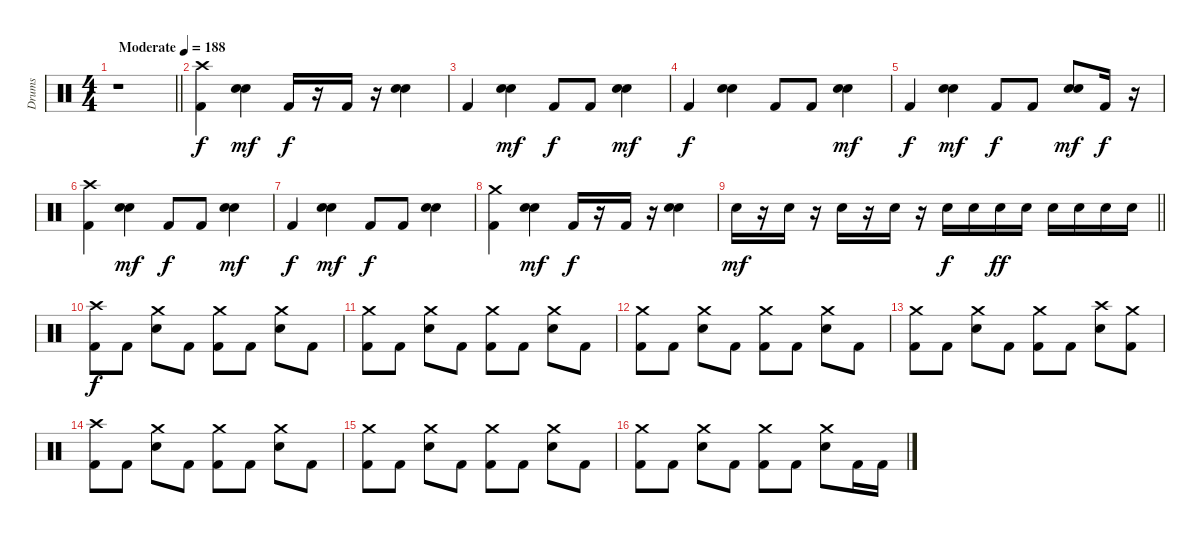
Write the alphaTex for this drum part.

\track ("Drums" "Drums") {instrument percussion}
\staff {score}
\articulation defaults
\ts (4 4)
\tempo (188 "Moderate")
\clef neutral
\barLineRight lightlight
\ks c
r.1{dy f} |
\section ("" " ")
("Kick (hit) 2" "Crash high (hit)").4 ("Snare (hit) 2" "Snare (hit) 2").4{dy mf} "Kick (hit) 2".16{dy f} r.16 "Kick (hit) 2".16 r.16 ("Snare (hit) 2" "Snare (hit) 2").4 |
"Kick (hit) 2".4 ("Snare (hit) 2" "Snare (hit) 2").4{dy mf} "Kick (hit) 2".8{dy f} "Kick (hit) 2".8 ("Snare (hit) 2" "Snare (hit) 2").4{dy mf} |
"Kick (hit) 2".4{dy f} ("Snare (hit) 2" "Snare (hit) 2").4 "Kick (hit) 2".8 "Kick (hit) 2".8 ("Snare (hit) 2" "Snare (hit) 2").4{dy mf} |
"Kick (hit) 2".4{dy f} ("Snare (hit) 2" "Snare (hit) 2").4{dy mf} "Kick (hit) 2".8{dy f} "Kick (hit) 2".8 ("Snare (hit) 2" "Snare (hit) 2").8{dy mf} "Kick (hit) 2".16{dy f} r.16 |
("Kick (hit) 2" "Crash high (hit)").4 ("Snare (hit) 2" "Snare (hit) 2").4{dy mf} "Kick (hit) 2".8{dy f} "Kick (hit) 2".8 ("Snare (hit) 2" "Snare (hit) 2").4{dy mf} |
"Kick (hit) 2".4{dy f} ("Snare (hit) 2" "Snare (hit) 2").4{dy mf} "Kick (hit) 2".8{dy f} "Kick (hit) 2".8 ("Snare (hit) 2" "Snare (hit) 2").4 |
("Kick (hit) 2" "Crash medium (hit)").4 ("Snare (hit) 2" "Snare (hit) 2").4{dy mf} "Kick (hit) 2".16{dy f} r.16 "Kick (hit) 2".16 r.16 ("Snare (hit) 2" "Snare (hit) 2").4 |
\barLineRight lightlight "Snare (hit) 2".16{dy mf}
r.16 "Snare (hit) 2".16 r.16 "Snare (hit) 2".16 r.16 "Snare (hit) 2".16 r.16 "Snare (hit) 2".16{dy f} "Snare (hit) 2".16 "Snare (hit) 2".16{dy ff} "Snare (hit) 2".16 "Snare (hit) 2".16 "Snare (hit) 2".16 "Snare (hit) 2".16 "Snare (hit) 2".16 |
\section ("" " ")
("Kick (hit) 2" "Crash high (hit)").8{dy f} "Kick (hit) 2".8 ("Snare (hit) 2" "Crash medium (hit)").8 "Kick (hit) 2".8 ("Kick (hit) 2" "Crash medium (hit)").8 "Kick (hit) 2".8 ("Snare (hit) 2" "Crash medium (hit)").8 "Kick (hit) 2".8 |
("Kick (hit) 2" "Crash medium (hit)").8 "Kick (hit) 2".8 ("Snare (hit) 2" "Crash medium (hit)").8 "Kick (hit) 2".8 ("Kick (hit) 2" "Crash medium (hit)").8 "Kick (hit) 2".8 ("Snare (hit) 2" "Crash medium (hit)").8 "Kick (hit) 2".8 |
("Kick (hit) 2" "Crash medium (hit)").8 "Kick (hit) 2".8 ("Snare (hit) 2" "Crash medium (hit)").8 "Kick (hit) 2".8 ("Kick (hit) 2" "Crash medium (hit)").8 "Kick (hit) 2".8 ("Snare (hit) 2" "Crash medium (hit)").8 "Kick (hit) 2".8 |
("Kick (hit) 2" "Crash medium (hit)").8 "Kick (hit) 2".8 ("Snare (hit) 2" "Crash medium (hit)").8 "Kick (hit) 2".8 ("Kick (hit) 2" "Crash medium (hit)").8 "Kick (hit) 2".8 ("Snare (hit) 2" "Crash high (hit)").8 ("Kick (hit) 2" "Crash medium (hit)").8 |
("Kick (hit) 2" "Crash high (hit)").8 "Kick (hit) 2".8 ("Snare (hit) 2" "Crash medium (hit)").8 "Kick (hit) 2".8 ("Kick (hit) 2" "Crash medium (hit)").8 "Kick (hit) 2".8 ("Snare (hit) 2" "Crash medium (hit)").8 "Kick (hit) 2".8 |
("Kick (hit) 2" "Crash medium (hit)").8 "Kick (hit) 2".8 ("Snare (hit) 2" "Crash medium (hit)").8 "Kick (hit) 2".8 ("Kick (hit) 2" "Crash medium (hit)").8 "Kick (hit) 2".8 ("Snare (hit) 2" "Crash medium (hit)").8 "Kick (hit) 2".8 |
("Kick (hit) 2" "Crash medium (hit)").8 "Kick (hit) 2".8 ("Snare (hit) 2" "Crash medium (hit)").8 "Kick (hit) 2".8 ("Kick (hit) 2" "Crash medium (hit)").8 "Kick (hit) 2".8 ("Snare (hit) 2" "Crash medium (hit)").8 "Kick (hit) 2".16 "Kick (hit) 2".16
